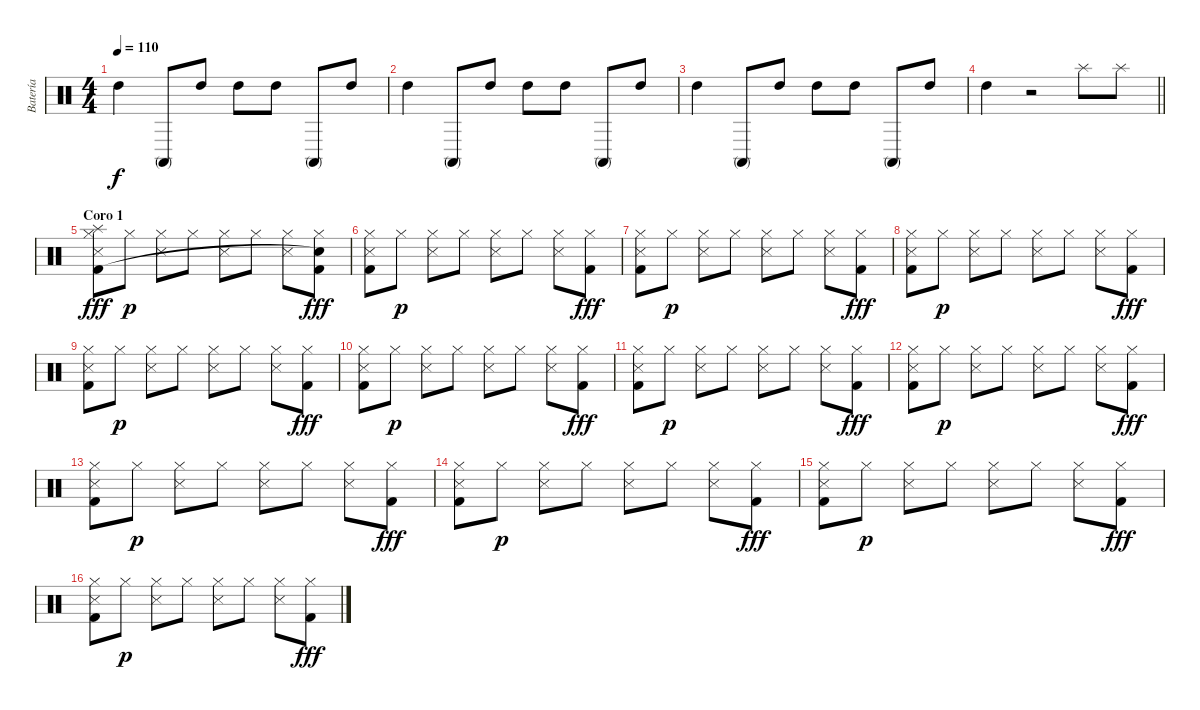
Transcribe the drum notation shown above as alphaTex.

\track ("Batería" "Batería") {instrument percussion}
\staff {score}
\articulation defaults
\ts (4 4)
\tempo 110
\clef neutral
\ks c "High Tom (hit)".4{dy f} "Conga high (mute)".8 "High Tom (hit)".8 "High Tom (hit)".8 "High Tom (hit)".8 "Conga high (mute)".8 "High Tom (hit)".8
|
"High Tom (hit)".4 "Conga high (mute)".8 "High Tom (hit)".8 "High Tom (hit)".8 "High Tom (hit)".8 "Conga high (mute)".8 "High Tom (hit)".8 |
"High Tom (hit)".4 "Conga high (mute)".8 "High Tom (hit)".8 "High Tom (hit)".8 "High Tom (hit)".8 "Conga high (mute)".8 "High Tom (hit)".8 |
\barLineRight lightlight "High Tom (hit)".4
r.2 "Splash (hit)".8 "Splash (hit)".8 |
\section ("" "Coro 1")
("Hi-Hat (closed)" "Snare (side stick) 3" "Kick (hit) 2" "Splash (hit)").8{dy fff} "Hi-Hat (closed)".8{dy p} ("Hi-Hat (closed)" "Snare (side stick) 3").8 "Hi-Hat (closed)".8 ("Hi-Hat (closed)" "Snare (side stick) 3").8 "Hi-Hat (closed)".8 ("Hi-Hat (closed)" "Snare (side stick) 3").8 ("Hi-Hat (closed)" "Kick (hit) 2" "Snare (hit)"{t}).8{dy fff} |
("Hi-Hat (closed)" "Snare (side stick) 3" "Kick (hit) 2").8 "Hi-Hat (closed)".8{dy p} ("Hi-Hat (closed)" "Snare (side stick) 3").8 "Hi-Hat (closed)".8 ("Hi-Hat (closed)" "Snare (side stick) 3").8 "Hi-Hat (closed)".8 ("Hi-Hat (closed)" "Snare (side stick) 3").8 ("Hi-Hat (closed)" "Kick (hit) 2").8{dy fff} |
("Hi-Hat (closed)" "Snare (side stick) 3" "Kick (hit) 2").8 "Hi-Hat (closed)".8{dy p} ("Hi-Hat (closed)" "Snare (side stick) 3").8 "Hi-Hat (closed)".8 ("Hi-Hat (closed)" "Snare (side stick) 3").8 "Hi-Hat (closed)".8 ("Hi-Hat (closed)" "Snare (side stick) 3").8 ("Hi-Hat (closed)" "Kick (hit) 2").8{dy fff} |
("Hi-Hat (closed)" "Snare (side stick) 3" "Kick (hit) 2").8 "Hi-Hat (closed)".8{dy p} ("Hi-Hat (closed)" "Snare (side stick) 3").8 "Hi-Hat (closed)".8 ("Hi-Hat (closed)" "Snare (side stick) 3").8 "Hi-Hat (closed)".8 ("Hi-Hat (closed)" "Snare (side stick) 3").8 ("Hi-Hat (closed)" "Kick (hit) 2").8{dy fff} |
("Hi-Hat (closed)" "Snare (side stick) 3" "Kick (hit) 2").8 "Hi-Hat (closed)".8{dy p} ("Hi-Hat (closed)" "Snare (side stick) 3").8 "Hi-Hat (closed)".8 ("Hi-Hat (closed)" "Snare (side stick) 3").8 "Hi-Hat (closed)".8 ("Hi-Hat (closed)" "Snare (side stick) 3").8 ("Hi-Hat (closed)" "Kick (hit) 2").8{dy fff} |
("Hi-Hat (closed)" "Snare (side stick) 3" "Kick (hit) 2").8 "Hi-Hat (closed)".8{dy p} ("Hi-Hat (closed)" "Snare (side stick) 3").8 "Hi-Hat (closed)".8 ("Hi-Hat (closed)" "Snare (side stick) 3").8 "Hi-Hat (closed)".8 ("Hi-Hat (closed)" "Snare (side stick) 3").8 ("Hi-Hat (closed)" "Kick (hit) 2").8{dy fff} |
("Hi-Hat (closed)" "Snare (side stick) 3" "Kick (hit) 2").8 "Hi-Hat (closed)".8{dy p} ("Hi-Hat (closed)" "Snare (side stick) 3").8 "Hi-Hat (closed)".8 ("Hi-Hat (closed)" "Snare (side stick) 3").8 "Hi-Hat (closed)".8 ("Hi-Hat (closed)" "Snare (side stick) 3").8 ("Hi-Hat (closed)" "Kick (hit) 2").8{dy fff} |
("Hi-Hat (closed)" "Snare (side stick) 3" "Kick (hit) 2").8 "Hi-Hat (closed)".8{dy p} ("Hi-Hat (closed)" "Snare (side stick) 3").8 "Hi-Hat (closed)".8 ("Hi-Hat (closed)" "Snare (side stick) 3").8 "Hi-Hat (closed)".8 ("Hi-Hat (closed)" "Snare (side stick) 3").8 ("Hi-Hat (closed)" "Kick (hit) 2").8{dy fff} |
("Hi-Hat (closed)" "Snare (side stick) 3" "Kick (hit) 2").8 "Hi-Hat (closed)".8{dy p} ("Hi-Hat (closed)" "Snare (side stick) 3").8 "Hi-Hat (closed)".8 ("Hi-Hat (closed)" "Snare (side stick) 3").8 "Hi-Hat (closed)".8 ("Hi-Hat (closed)" "Snare (side stick) 3").8 ("Hi-Hat (closed)" "Kick (hit) 2").8{dy fff} |
("Hi-Hat (closed)" "Snare (side stick) 3" "Kick (hit) 2").8 "Hi-Hat (closed)".8{dy p} ("Hi-Hat (closed)" "Snare (side stick) 3").8 "Hi-Hat (closed)".8 ("Hi-Hat (closed)" "Snare (side stick) 3").8 "Hi-Hat (closed)".8 ("Hi-Hat (closed)" "Snare (side stick) 3").8 ("Hi-Hat (closed)" "Kick (hit) 2").8{dy fff} |
("Hi-Hat (closed)" "Snare (side stick) 3" "Kick (hit) 2").8 "Hi-Hat (closed)".8{dy p} ("Hi-Hat (closed)" "Snare (side stick) 3").8 "Hi-Hat (closed)".8 ("Hi-Hat (closed)" "Snare (side stick) 3").8 "Hi-Hat (closed)".8 ("Hi-Hat (closed)" "Snare (side stick) 3").8 ("Hi-Hat (closed)" "Kick (hit) 2").8{dy fff} |
("Hi-Hat (closed)" "Snare (side stick) 3" "Kick (hit) 2").8 "Hi-Hat (closed)".8{dy p} ("Hi-Hat (closed)" "Snare (side stick) 3").8 "Hi-Hat (closed)".8 ("Hi-Hat (closed)" "Snare (side stick) 3").8 "Hi-Hat (closed)".8 ("Hi-Hat (closed)" "Snare (side stick) 3").8 ("Hi-Hat (closed)" "Kick (hit) 2").8{dy fff}
